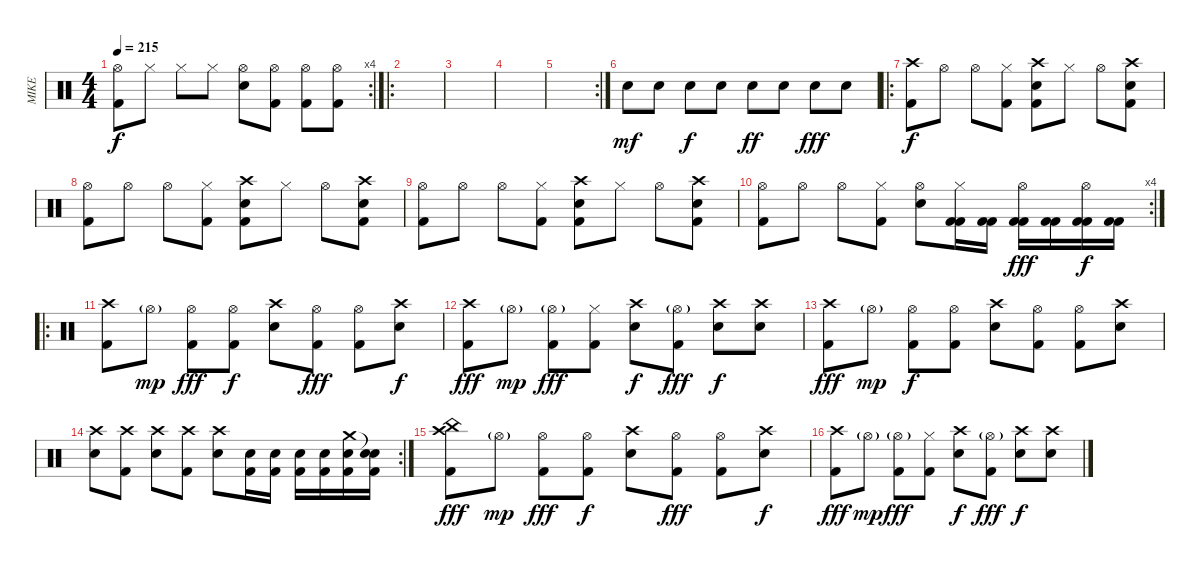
\track ("MIKE" "MIKE") {instrument percussion}
\staff {score}
\articulation defaults
\rc 4
\ts (4 4)
\tempo 215
\clef neutral
\ks c
("Hi-Hat (open)" "Kick (hit) 2").8{dy f} "Hi-Hat (closed)".8 "Hi-Hat (closed)".8 "Hi-Hat (closed)".8 ("Hi-Hat (open)" "Snare (hit) 2").8 ("Hi-Hat (open)" "Kick (hit) 2").8 ("Hi-Hat (open)" "Kick (hit) 2").8 ("Hi-Hat (open)" "Kick (hit) 2").8 |
\ro
|
|
|
\rc 2
|
"Electric Snare (hit)".8{dy mf} "Electric Snare (hit)".8 "Electric Snare (hit)".8{dy f} "Electric Snare (hit)".8 "Electric Snare (hit)".8{dy ff} "Electric Snare (hit)".8 "Electric Snare (hit)".8{dy fff} "Electric Snare (hit)".8 |
\ro
("Crash high (hit)" "Kick (hit) 2").8{dy f} "Hi-Hat (open)".8 "Hi-Hat (open)".8 ("Hi-Hat (closed)" "Kick (hit) 2").8 ("Kick (hit) 2" "Crash high (hit)" "Electric Snare (hit)").8 "Hi-Hat (closed)".8 "Hi-Hat (open)".8 ("Kick (hit) 2" "Crash high (hit)" "Electric Snare (hit)").8 |
("Hi-Hat (open)" "Kick (hit) 2").8 "Hi-Hat (open)".8 "Hi-Hat (open)".8 ("Hi-Hat (closed)" "Kick (hit) 2").8 ("Kick (hit) 2" "Crash high (hit)" "Electric Snare (hit)").8 "Hi-Hat (closed)".8 "Hi-Hat (open)".8 ("Kick (hit) 2" "Crash high (hit)" "Electric Snare (hit)").8 |
("Hi-Hat (open)" "Kick (hit) 2").8 "Hi-Hat (open)".8 "Hi-Hat (open)".8 ("Hi-Hat (closed)" "Kick (hit) 2").8 ("Kick (hit) 2" "Crash high (hit)" "Electric Snare (hit)").8 "Hi-Hat (closed)".8 "Hi-Hat (open)".8 ("Kick (hit) 2" "Crash high (hit)" "Electric Snare (hit)").8 |
\rc 4
("Hi-Hat (open)" "Kick (hit) 2").8 "Hi-Hat (open)".8 "Hi-Hat (open)".8 ("Hi-Hat (closed)" "Kick (hit) 2").8 ("Hi-Hat (open)" "Electric Snare (hit)").8 ("Kick (hit) 2" "Hi-Hat (closed)" "Kick (hit) 2").16 ("Kick (hit) 2" "Kick (hit) 2").16 ("Kick (hit) 2" "Hi-Hat (open)" "Kick (hit) 2").16{dy fff} ("Kick (hit) 2" "Kick (hit) 2").16 ("Kick (hit) 2" "Hi-Hat (open)" "Kick (hit) 2").16{dy f} ("Kick (hit) 2" "Kick (hit) 2").16 |
\ro
("Crash high (hit)" "Kick (hit) 2").8 "Hi-Hat (open)"{g}.8{dy mp} ("Hi-Hat (open)" "Kick (hit) 2").8{dy fff} ("Hi-Hat (open)" "Kick (hit) 2").8{dy f} ("Crash high (hit)" "Electric Snare (hit)").8 ("Hi-Hat (open)" "Kick (hit) 2").8{dy fff} ("Hi-Hat (open)" "Kick (hit) 2").8 ("Crash high (hit)" "Electric Snare (hit)").8{dy f} |
("Crash high (hit)" "Kick (hit) 2").8{dy fff} "Hi-Hat (open)"{g}.8{dy mp} ("Hi-Hat (open)"{g} "Kick (hit) 2").8{dy fff} ("Hi-Hat (closed)" "Kick (hit) 2").8 ("Crash high (hit)" "Electric Snare (hit)").8{dy f} ("Hi-Hat (open)"{g} "Kick (hit) 2").8{dy fff} ("Crash high (hit)" "Electric Snare (hit)").8{dy f} ("Crash high (hit)" "Electric Snare (hit)").8 |
("Crash high (hit)" "Kick (hit) 2").8{dy fff} "Hi-Hat (open)"{g}.8{dy mp} ("Hi-Hat (open)" "Kick (hit) 2").8{dy f} ("Hi-Hat (open)" "Kick (hit) 2").8 ("Crash high (hit)" "Electric Snare (hit)").8 ("Hi-Hat (open)" "Kick (hit) 2").8 ("Hi-Hat (open)" "Kick (hit) 2").8 ("Crash high (hit)" "Electric Snare (hit)").8 |
\rc 2
("Crash high (hit)" "Electric Snare (hit)").8 ("Crash high (hit)" "Kick (hit) 2").8 ("Crash high (hit)" "Electric Snare (hit)").8 ("Crash high (hit)" "Kick (hit) 2").8 ("Crash high (hit)" "Electric Snare (hit)").8 ("Electric Snare (hit)" "Kick (hit) 2").16 ("Electric Snare (hit)" "Kick (hit) 2").16 ("Electric Snare (hit)" "Kick (hit) 2").16 ("Electric Snare (hit)" "Kick (hit) 2").16 ("Crash medium (hit)" "Electric Snare (hit)" "Kick (hit) 2").16 ("Snare (hit)"{t} "Electric Snare (hit)" "Kick (hit) 2").16 |
("China (hit)" "Crash high (hit)" "Kick (hit) 2").8{dy fff} "Hi-Hat (open)"{g}.8{dy mp} ("Hi-Hat (open)" "Kick (hit) 2").8{dy fff} ("Hi-Hat (open)" "Kick (hit) 2").8{dy f} ("Crash high (hit)" "Electric Snare (hit)").8 ("Hi-Hat (open)" "Kick (hit) 2").8{dy fff} ("Hi-Hat (open)" "Kick (hit) 2").8 ("Crash high (hit)" "Electric Snare (hit)").8{dy f} |
("Crash high (hit)" "Kick (hit) 2").8{dy fff} "Hi-Hat (open)"{g}.8{dy mp} ("Hi-Hat (open)"{g} "Kick (hit) 2").8{dy fff} ("Hi-Hat (closed)" "Kick (hit) 2").8 ("Crash high (hit)" "Electric Snare (hit)").8{dy f} ("Hi-Hat (open)"{g} "Kick (hit) 2").8{dy fff} ("Crash high (hit)" "Electric Snare (hit)").8{dy f} ("Crash high (hit)" "Electric Snare (hit)").8
